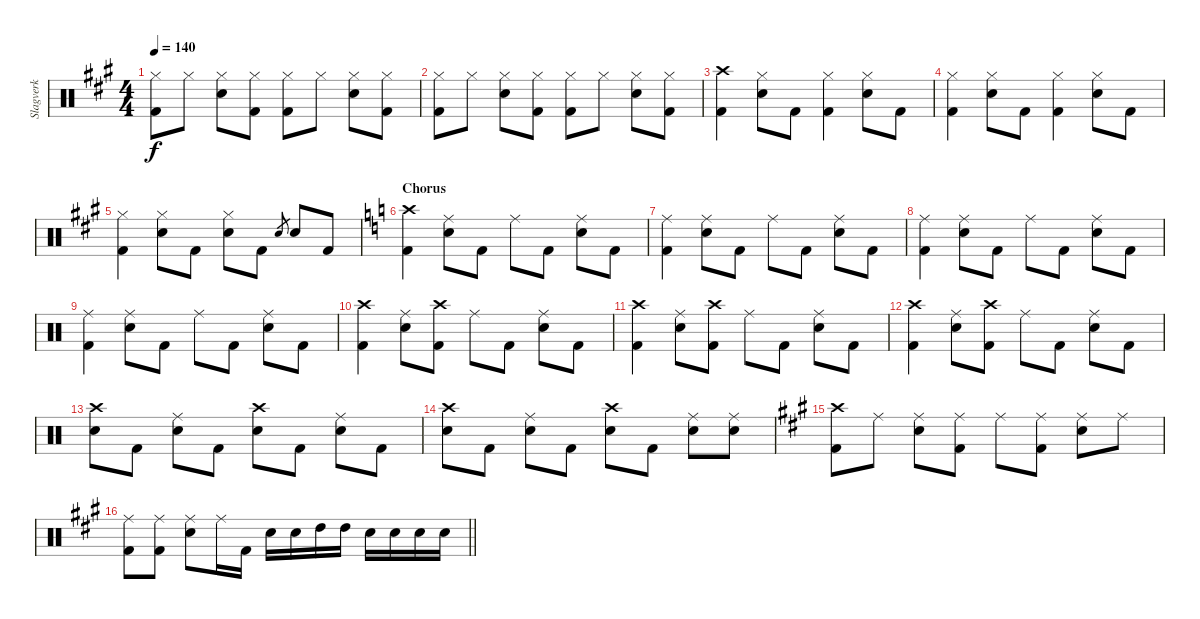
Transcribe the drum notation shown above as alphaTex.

\track ("Slagverk" "Slagverk") {instrument percussion}
\staff {score}
\articulation defaults
\ts (4 4)
\tempo 140
\clef neutral
\ks a
("Hi-Hat (closed)" "Kick (hit) 2").8{dy f} "Hi-Hat (closed)".8 ("Hi-Hat (closed)" "Electric Snare (hit)").8 ("Hi-Hat (closed)" "Kick (hit) 2").8 ("Hi-Hat (closed)" "Kick (hit) 2").8 "Hi-Hat (closed)".8 ("Hi-Hat (closed)" "Electric Snare (hit)").8 ("Hi-Hat (closed)" "Kick (hit) 2").8 |
("Hi-Hat (closed)" "Kick (hit) 2").8 "Hi-Hat (closed)".8 ("Hi-Hat (closed)" "Electric Snare (hit)").8 ("Hi-Hat (closed)" "Kick (hit) 2").8 ("Hi-Hat (closed)" "Kick (hit) 2").8 "Hi-Hat (closed)".8 ("Hi-Hat (closed)" "Electric Snare (hit)").8 ("Hi-Hat (closed)" "Kick (hit) 2").8 |
("Crash high (hit)" "Kick (hit) 2").4 ("Hi-Hat (closed)" "Electric Snare (hit)").8 "Kick (hit) 2".8 ("Hi-Hat (closed)" "Kick (hit) 2").4 ("Hi-Hat (closed)" "Electric Snare (hit)").8 "Kick (hit) 2".8 |
("Hi-Hat (closed)" "Kick (hit) 2").4 ("Hi-Hat (closed)" "Electric Snare (hit)").8 "Kick (hit) 2".8 ("Hi-Hat (closed)" "Kick (hit) 2").4 ("Hi-Hat (closed)" "Electric Snare (hit)").8 "Kick (hit) 2".8 |
("Hi-Hat (closed)" "Kick (hit) 2").4 ("Hi-Hat (closed)" "Electric Snare (hit)").8 "Kick (hit) 2".8 ("Hi-Hat (closed)" "Electric Snare (hit)").8 "Kick (hit) 2".8 "Electric Snare (hit)".8{gr} "Electric Snare (hit)".8 "Kick (hit) 2".8 |
\section ("" "Chorus")
\ks c
("Crash high (hit)" "Kick (hit) 2").4 ("Ride (middle)" "Electric Snare (hit)").8 "Kick (hit) 2".8 "Ride (middle)".8 "Kick (hit) 2".8 ("Ride (middle)" "Electric Snare (hit)").8 "Kick (hit) 2".8 |
("Ride (middle)" "Kick (hit) 2").4 ("Ride (middle)" "Electric Snare (hit)").8 "Kick (hit) 2".8 "Ride (middle)".8 "Kick (hit) 2".8 ("Ride (middle)" "Electric Snare (hit)").8 "Kick (hit) 2".8 |
("Ride (middle)" "Kick (hit) 2").4 ("Ride (middle)" "Electric Snare (hit)").8 "Kick (hit) 2".8 "Ride (middle)".8 "Kick (hit) 2".8 ("Ride (middle)" "Electric Snare (hit)").8 "Kick (hit) 2".8 |
("Ride (middle)" "Kick (hit) 2").4 ("Ride (middle)" "Electric Snare (hit)").8 "Kick (hit) 2".8 "Ride (middle)".8 "Kick (hit) 2".8 ("Ride (middle)" "Electric Snare (hit)").8 "Kick (hit) 2".8 |
("Crash high (hit)" "Kick (hit) 2").4 ("Ride (middle)" "Electric Snare (hit)").8 ("Crash high (hit)" "Kick (hit) 2").8 "Ride (middle)".8 "Kick (hit) 2".8 ("Ride (middle)" "Electric Snare (hit)").8 "Kick (hit) 2".8 |
("Crash high (hit)" "Kick (hit) 2").4 ("Ride (middle)" "Electric Snare (hit)").8 ("Crash high (hit)" "Kick (hit) 2").8 "Ride (middle)".8 "Kick (hit) 2".8 ("Ride (middle)" "Electric Snare (hit)").8 "Kick (hit) 2".8 |
("Crash high (hit)" "Kick (hit) 2").4 ("Ride (middle)" "Electric Snare (hit)").8 ("Crash high (hit)" "Kick (hit) 2").8 "Ride (middle)".8 "Kick (hit) 2".8 ("Ride (middle)" "Electric Snare (hit)").8 "Kick (hit) 2".8 |
("Crash high (hit)" "Electric Snare (hit)").8 "Kick (hit) 2".8 ("Ride (middle)" "Electric Snare (hit)").8 "Kick (hit) 2".8 ("Crash high (hit)" "Electric Snare (hit)").8 "Kick (hit) 2".8 ("Ride (middle)" "Electric Snare (hit)").8 "Kick (hit) 2".8 |
("Crash high (hit)" "Electric Snare (hit)").8 "Kick (hit) 2".8 ("Ride (middle)" "Electric Snare (hit)").8 "Kick (hit) 2".8 ("Crash high (hit)" "Electric Snare (hit)").8 "Kick (hit) 2".8 ("Ride (middle)" "Electric Snare (hit)").8 ("Ride (middle)" "Electric Snare (hit)").8 |
\ks a
("Crash high (hit)" "Kick (hit) 2").8 "Ride (middle)".8 ("Ride (middle)" "Electric Snare (hit)").8 ("Ride (middle)" "Kick (hit) 2").8 "Ride (middle)".8 ("Ride (middle)" "Kick (hit) 2").8 ("Ride (middle)" "Electric Snare (hit)").8 "Ride (middle)".8 |
\barLineRight lightlight
("Ride (middle)" "Kick (hit) 2").8 ("Ride (middle)" "Kick (hit) 2").8 ("Ride (middle)" "Electric Snare (hit)").8 "Ride (middle)".16 "Kick (hit) 2".16 "Electric Snare (hit)".16 "Electric Snare (hit)".16 "High Tom (hit)".16 "High Tom (hit)".16 "Electric Snare (hit)".16 "Electric Snare (hit)".16 "Electric Snare (hit)".16 "Electric Snare (hit)".16
